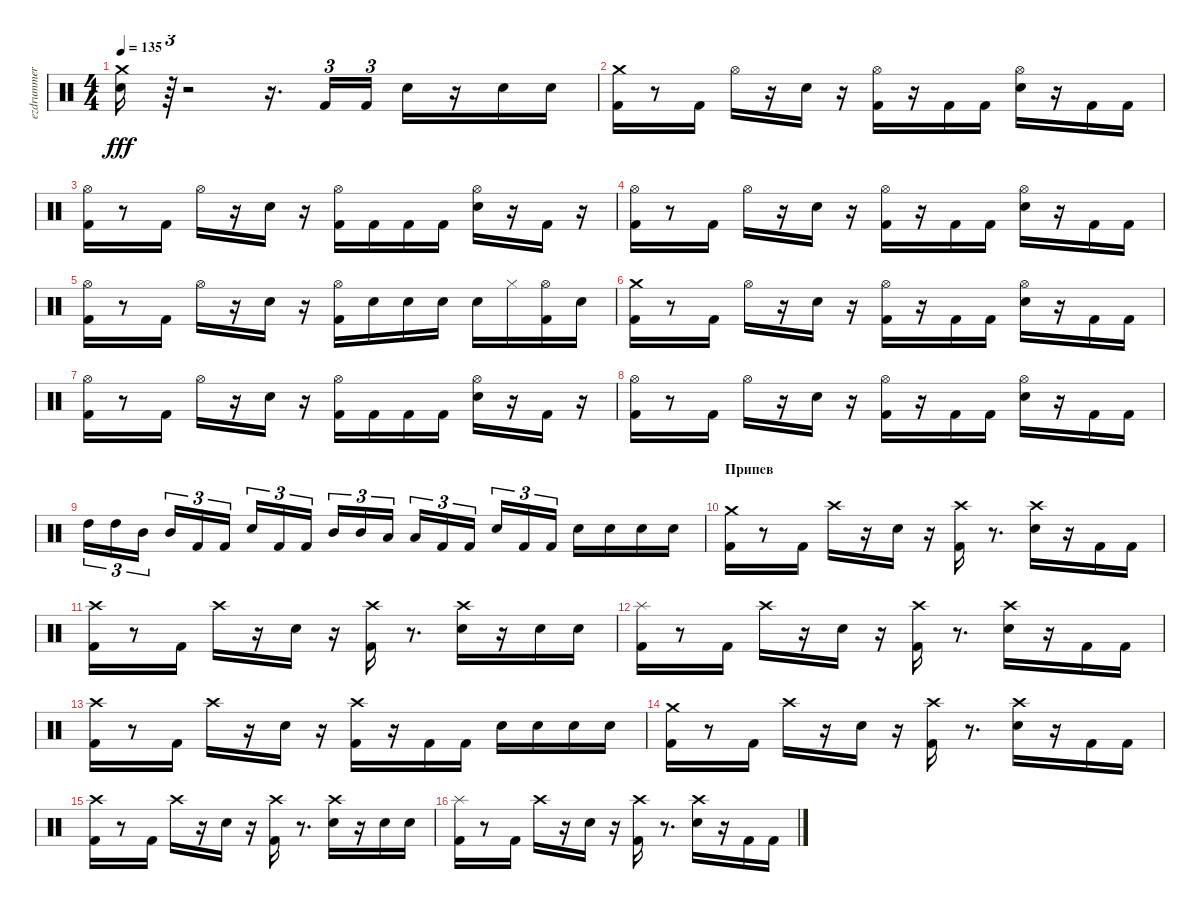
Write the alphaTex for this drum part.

\track ("ezdrummer" "ezdrummer") {instrument percussion}
\staff {score}
\articulation defaults
\ts (4 4)
\tempo 135
\clef neutral
\ks c
("Snare (hit) 2" "Crash medium (hit)").16{dy fff} r.64{tu (3 2)} r.2 r.16{d} "Kick (hit) 2".16{tu (3 2)} "Kick (hit) 2".16{tu (3 2)} "Snare (hit) 2".16 r.16 "Snare (hit) 2".16 "Snare (hit) 2".16 |
("Kick (hit) 2" "Crash medium (hit)").16 r.8 "Kick (hit) 2".16 "Hi-Hat (open)".16 r.16 "Snare (hit) 2".16 r.16 ("Kick (hit) 2" "Hi-Hat (open)").16 r.16 "Kick (hit) 2".16 "Kick (hit) 2".16 ("Snare (hit) 2" "Hi-Hat (open)").16 r.16 "Kick (hit) 2".16 "Kick (hit) 2".16 |
("Kick (hit) 2" "Hi-Hat (open)").16 r.8 "Kick (hit) 2".16 "Hi-Hat (open)".16 r.16 "Snare (hit) 2".16 r.16 ("Kick (hit) 2" "Hi-Hat (open)").16 "Kick (hit) 2".16 "Kick (hit) 2".16 "Kick (hit) 2".16 ("Snare (hit) 2" "Hi-Hat (open)").16 r.16 "Kick (hit) 2".16 r.16 |
("Kick (hit) 2" "Hi-Hat (open)").16 r.8 "Kick (hit) 2".16 "Hi-Hat (open)".16 r.16 "Snare (hit) 2".16 r.16 ("Kick (hit) 2" "Hi-Hat (open)").16 r.16 "Kick (hit) 2".16 "Kick (hit) 2".16 ("Snare (hit) 2" "Hi-Hat (open)").16 r.16 "Kick (hit) 2".16 "Kick (hit) 2".16 |
("Kick (hit) 2" "Hi-Hat (open)").16 r.8 "Kick (hit) 2".16 "Hi-Hat (open)".16 r.16 "Snare (hit) 2".16 r.16 ("Kick (hit) 2" "Hi-Hat (open)").16 "Snare (hit) 2".16 "Snare (hit) 2".16 "Snare (hit) 2".16 "Snare (hit) 2".16 "Hi-Hat (closed)".16 ("Kick (hit) 2" "Hi-Hat (open)").16 "Snare (hit) 2".16 |
("Kick (hit) 2" "Crash medium (hit)").16 r.8 "Kick (hit) 2".16 "Hi-Hat (open)".16 r.16 "Snare (hit) 2".16 r.16 ("Kick (hit) 2" "Hi-Hat (open)").16 r.16 "Kick (hit) 2".16 "Kick (hit) 2".16 ("Snare (hit) 2" "Hi-Hat (open)").16 r.16 "Kick (hit) 2".16 "Kick (hit) 2".16 |
("Kick (hit) 2" "Hi-Hat (open)").16 r.8 "Kick (hit) 2".16 "Hi-Hat (open)".16 r.16 "Snare (hit) 2".16 r.16 ("Kick (hit) 2" "Hi-Hat (open)").16 "Kick (hit) 2".16 "Kick (hit) 2".16 "Kick (hit) 2".16 ("Snare (hit) 2" "Hi-Hat (open)").16 r.16 "Kick (hit) 2".16 r.16 |
("Kick (hit) 2" "Hi-Hat (open)").16 r.8 "Kick (hit) 2".16 "Hi-Hat (open)".16 r.16 "Snare (hit) 2".16 r.16 ("Kick (hit) 2" "Hi-Hat (open)").16 r.16 "Kick (hit) 2".16 "Kick (hit) 2".16 ("Snare (hit) 2" "Hi-Hat (open)").16 r.16 "Kick (hit) 2".16 "Kick (hit) 2".16 |
"High Tom (hit)".16{tu (3 2)} "High Tom (hit)".16{tu (3 2)} "Mid Tom (hit)".16{tu (3 2)} "Mid Tom (hit)".16{tu (3 2)} "Kick (hit) 2".16{tu (3 2)} "Kick (hit) 2".16{tu (3 2)} "Snare (hit) 2".16{tu (3 2)} "Kick (hit) 2".16{tu (3 2)} "Kick (hit) 2".16{tu (3 2)} "Mid Tom (hit)".16{tu (3 2)} "Mid Tom (hit)".16{tu (3 2)} "Low Tom (hit)".16{tu (3 2)} "Low Tom (hit)".16{tu (3 2)} "Kick (hit) 2".16{tu (3 2)} "Kick (hit) 2".16{tu (3 2)} "Snare (hit) 2".16{tu (3 2)} "Kick (hit) 2".16{tu (3 2)} "Kick (hit) 2".16{tu (3 2)} "Snare (hit) 2".16 "Snare (hit) 2".16 "Snare (hit) 2".16 "Snare (hit) 2".16 |
\section ("" "Припев")
("Kick (hit) 2" "Crash medium (hit)").16 r.8 "Kick (hit) 2".16 "Crash high (hit)".16 r.16 "Snare (hit) 2".16 r.16 ("Kick (hit) 2" "Crash high (hit)").16 r.8{d} ("Snare (hit) 2" "Crash high (hit)").16 r.16 "Kick (hit) 2".16 "Kick (hit) 2".16 |
("Kick (hit) 2" "Crash high (hit)").16 r.8 "Kick (hit) 2".16 "Crash high (hit)".16 r.16 "Snare (hit) 2".16 r.16 ("Kick (hit) 2" "Crash high (hit)").16 r.8{d} ("Snare (hit) 2" "Crash high (hit)").16 r.16 "Snare (hit) 2".16 "Snare (hit) 2".16 |
("Kick (hit) 2" "Splash (hit)").16 r.8 "Kick (hit) 2".16 "Crash high (hit)".16 r.16 "Snare (hit) 2".16 r.16 ("Kick (hit) 2" "Crash high (hit)").16 r.8{d} ("Snare (hit) 2" "Crash high (hit)").16 r.16 "Kick (hit) 2".16 "Kick (hit) 2".16 |
("Kick (hit) 2" "Crash high (hit)").16 r.8 "Kick (hit) 2".16 "Crash high (hit)".16 r.16 "Snare (hit) 2".16 r.16 ("Kick (hit) 2" "Crash high (hit)").16 r.16 "Kick (hit) 2".16 "Kick (hit) 2".16 "Snare (hit) 2".16 "Snare (hit) 2".16 "Snare (hit) 2".16 "Snare (hit) 2".16 |
("Kick (hit) 2" "Crash medium (hit)").16 r.8 "Kick (hit) 2".16 "Crash high (hit)".16 r.16 "Snare (hit) 2".16 r.16 ("Kick (hit) 2" "Crash high (hit)").16 r.8{d} ("Snare (hit) 2" "Crash high (hit)").16 r.16 "Kick (hit) 2".16 "Kick (hit) 2".16 |
("Kick (hit) 2" "Crash high (hit)").16 r.8 "Kick (hit) 2".16 "Crash high (hit)".16 r.16 "Snare (hit) 2".16 r.16 ("Kick (hit) 2" "Crash high (hit)").16 r.8{d} ("Snare (hit) 2" "Crash high (hit)").16 r.16 "Snare (hit) 2".16 "Snare (hit) 2".16 |
("Kick (hit) 2" "Splash (hit)").16 r.8 "Kick (hit) 2".16 "Crash high (hit)".16 r.16 "Snare (hit) 2".16 r.16 ("Kick (hit) 2" "Crash high (hit)").16 r.8{d} ("Snare (hit) 2" "Crash high (hit)").16 r.16 "Kick (hit) 2".16 "Kick (hit) 2".16
